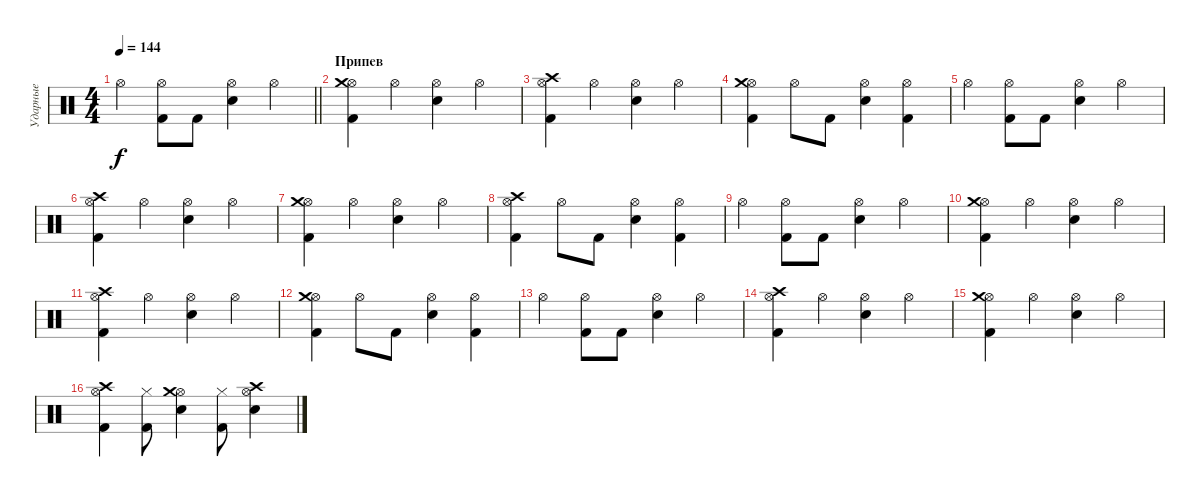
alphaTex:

\track ("Ударные" "Ударные") {instrument percussion}
\staff {score}
\articulation defaults
\ts (4 4)
\tempo 144
\clef neutral
\barLineRight lightlight
\ks c "Hi-Hat (open)".4{dy f}
("Kick (hit) 2" "Hi-Hat (open)").8 "Kick (hit) 2".8 ("Snare (hit) 2" "Hi-Hat (open)").4 "Hi-Hat (open)".4 |
\section ("" "Припев")
("Kick (hit) 2" "Hi-Hat (open)" "Crash medium (hit)").4 "Hi-Hat (open)".4 ("Snare (hit) 2" "Hi-Hat (open)").4 "Hi-Hat (open)".4 |
("Kick (hit) 2" "Hi-Hat (open)" "Crash high (hit)").4 "Hi-Hat (open)".4 ("Snare (hit) 2" "Hi-Hat (open)").4 "Hi-Hat (open)".4 |
("Kick (hit) 2" "Hi-Hat (open)" "Crash medium (hit)").4 "Hi-Hat (open)".8 "Kick (hit) 2".8 ("Snare (hit) 2" "Hi-Hat (open)").4 ("Kick (hit) 2" "Hi-Hat (open)").4 |
"Hi-Hat (open)".4 ("Kick (hit) 2" "Hi-Hat (open)").8 "Kick (hit) 2".8 ("Snare (hit) 2" "Hi-Hat (open)").4 "Hi-Hat (open)".4 |
("Kick (hit) 2" "Hi-Hat (open)" "Crash high (hit)").4 "Hi-Hat (open)".4 ("Snare (hit) 2" "Hi-Hat (open)").4 "Hi-Hat (open)".4 |
("Kick (hit) 2" "Hi-Hat (open)" "Crash medium (hit)").4 "Hi-Hat (open)".4 ("Snare (hit) 2" "Hi-Hat (open)").4 "Hi-Hat (open)".4 |
("Kick (hit) 2" "Hi-Hat (open)" "Crash high (hit)").4 "Hi-Hat (open)".8 "Kick (hit) 2".8 ("Snare (hit) 2" "Hi-Hat (open)").4 ("Kick (hit) 2" "Hi-Hat (open)").4 |
"Hi-Hat (open)".4 ("Kick (hit) 2" "Hi-Hat (open)").8 "Kick (hit) 2".8 ("Snare (hit) 2" "Hi-Hat (open)").4 "Hi-Hat (open)".4 |
("Kick (hit) 2" "Hi-Hat (open)" "Crash medium (hit)").4 "Hi-Hat (open)".4 ("Snare (hit) 2" "Hi-Hat (open)").4 "Hi-Hat (open)".4 |
("Kick (hit) 2" "Hi-Hat (open)" "Crash high (hit)").4 "Hi-Hat (open)".4 ("Snare (hit) 2" "Hi-Hat (open)").4 "Hi-Hat (open)".4 |
("Kick (hit) 2" "Hi-Hat (open)" "Crash medium (hit)").4 "Hi-Hat (open)".8 "Kick (hit) 2".8 ("Snare (hit) 2" "Hi-Hat (open)").4 ("Kick (hit) 2" "Hi-Hat (open)").4 |
"Hi-Hat (open)".4 ("Kick (hit) 2" "Hi-Hat (open)").8 "Kick (hit) 2".8 ("Snare (hit) 2" "Hi-Hat (open)").4 "Hi-Hat (open)".4 |
("Kick (hit) 2" "Hi-Hat (open)" "Crash high (hit)").4 "Hi-Hat (open)".4 ("Snare (hit) 2" "Hi-Hat (open)").4 "Hi-Hat (open)".4 |
("Kick (hit) 2" "Hi-Hat (open)" "Crash medium (hit)").4 "Hi-Hat (open)".4 ("Snare (hit) 2" "Hi-Hat (open)").4 "Hi-Hat (open)".4 |
("Kick (hit) 2" "Hi-Hat (open)" "Crash high (hit)").4 ("Kick (hit) 2" "Hi-Hat (closed)").8 ("Snare (hit) 2" "Hi-Hat (open)" "Crash medium (hit)").4 ("Kick (hit) 2" "Hi-Hat (closed)").8 ("Snare (hit) 2" "Hi-Hat (open)" "Crash high (hit)").4
